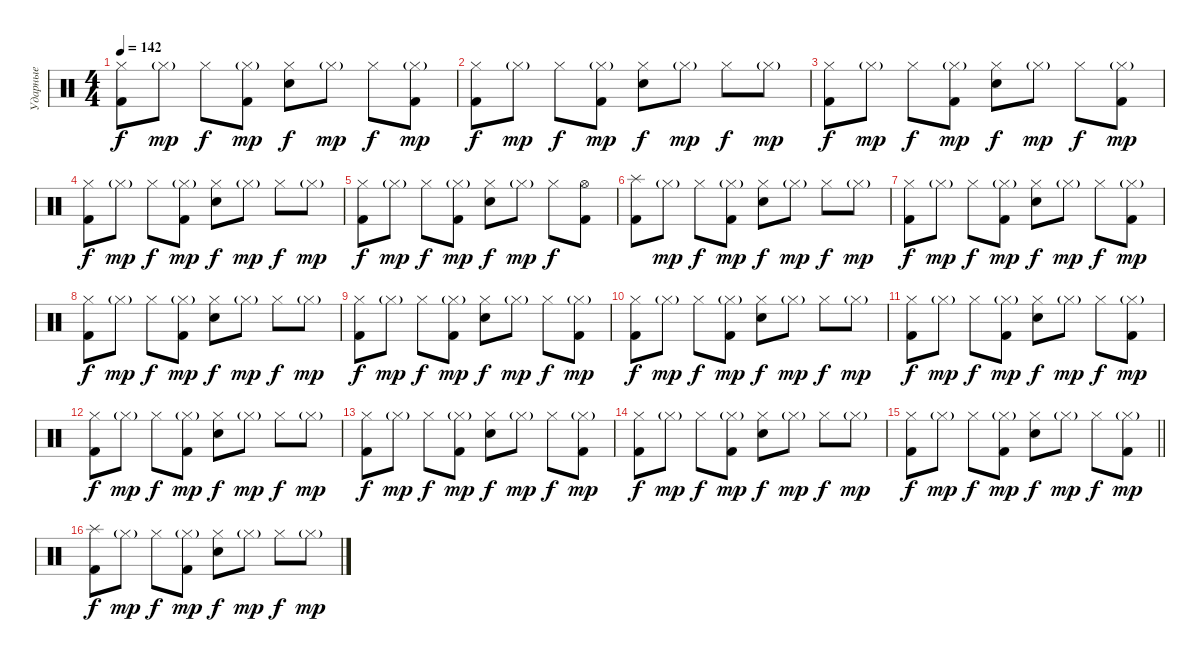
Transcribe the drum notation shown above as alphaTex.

\track ("Ударные" "Ударные") {instrument percussion}
\staff {score}
\articulation defaults
\ts (4 4)
\tempo 142
\clef neutral
\ks c
("Hi-Hat (closed)" "Kick (hit) 2").8{dy f} "Hi-Hat (closed)"{g}.8{dy mp} "Hi-Hat (closed)".8{dy f} ("Hi-Hat (closed)"{g} "Kick (hit) 2").8{dy mp} ("Hi-Hat (closed)" "Snare (hit) 2").8{dy f} "Hi-Hat (closed)"{g}.8{dy mp} "Hi-Hat (closed)".8{dy f} ("Hi-Hat (closed)"{g} "Kick (hit) 2").8{dy mp} |
("Hi-Hat (closed)" "Kick (hit) 2").8{dy f} "Hi-Hat (closed)"{g}.8{dy mp} "Hi-Hat (closed)".8{dy f} ("Hi-Hat (closed)"{g} "Kick (hit) 2").8{dy mp} ("Hi-Hat (closed)" "Snare (hit) 2").8{dy f} "Hi-Hat (closed)"{g}.8{dy mp} "Hi-Hat (closed)".8{dy f} "Hi-Hat (closed)"{g}.8{dy mp} |
("Hi-Hat (closed)" "Kick (hit) 2").8{dy f} "Hi-Hat (closed)"{g}.8{dy mp} "Hi-Hat (closed)".8{dy f} ("Hi-Hat (closed)"{g} "Kick (hit) 2").8{dy mp} ("Hi-Hat (closed)" "Snare (hit) 2").8{dy f} "Hi-Hat (closed)"{g}.8{dy mp} "Hi-Hat (closed)".8{dy f} ("Hi-Hat (closed)"{g} "Kick (hit) 2").8{dy mp} |
("Hi-Hat (closed)" "Kick (hit) 2").8{dy f} "Hi-Hat (closed)"{g}.8{dy mp} "Hi-Hat (closed)".8{dy f} ("Hi-Hat (closed)"{g} "Kick (hit) 2").8{dy mp} ("Hi-Hat (closed)" "Snare (hit) 2").8{dy f} "Hi-Hat (closed)"{g}.8{dy mp} "Hi-Hat (closed)".8{dy f} "Hi-Hat (closed)"{g}.8{dy mp} |
("Hi-Hat (closed)" "Kick (hit) 2").8{dy f} "Hi-Hat (closed)"{g}.8{dy mp} "Hi-Hat (closed)".8{dy f} ("Hi-Hat (closed)"{g} "Kick (hit) 2").8{dy mp} ("Hi-Hat (closed)" "Snare (hit) 2").8{dy f} "Hi-Hat (closed)"{g}.8{dy mp} "Hi-Hat (closed)".8{dy f} ("Hi-Hat (open)" "Kick (hit) 2").8 |
("Splash (hit)" "Kick (hit) 2").8 "Hi-Hat (closed)"{g}.8{dy mp} "Hi-Hat (closed)".8{dy f} ("Hi-Hat (closed)"{g} "Kick (hit) 2").8{dy mp} ("Hi-Hat (closed)" "Snare (hit) 2").8{dy f} "Hi-Hat (closed)"{g}.8{dy mp} "Hi-Hat (closed)".8{dy f} "Hi-Hat (closed)"{g}.8{dy mp} |
("Hi-Hat (closed)" "Kick (hit) 2").8{dy f} "Hi-Hat (closed)"{g}.8{dy mp} "Hi-Hat (closed)".8{dy f} ("Hi-Hat (closed)"{g} "Kick (hit) 2").8{dy mp} ("Hi-Hat (closed)" "Snare (hit) 2").8{dy f} "Hi-Hat (closed)"{g}.8{dy mp} "Hi-Hat (closed)".8{dy f} ("Hi-Hat (closed)"{g} "Kick (hit) 2").8{dy mp} |
("Hi-Hat (closed)" "Kick (hit) 2").8{dy f} "Hi-Hat (closed)"{g}.8{dy mp} "Hi-Hat (closed)".8{dy f} ("Hi-Hat (closed)"{g} "Kick (hit) 2").8{dy mp} ("Hi-Hat (closed)" "Snare (hit) 2").8{dy f} "Hi-Hat (closed)"{g}.8{dy mp} "Hi-Hat (closed)".8{dy f} "Hi-Hat (closed)"{g}.8{dy mp} |
("Hi-Hat (closed)" "Kick (hit) 2").8{dy f} "Hi-Hat (closed)"{g}.8{dy mp} "Hi-Hat (closed)".8{dy f} ("Hi-Hat (closed)"{g} "Kick (hit) 2").8{dy mp} ("Hi-Hat (closed)" "Snare (hit) 2").8{dy f} "Hi-Hat (closed)"{g}.8{dy mp} "Hi-Hat (closed)".8{dy f} ("Hi-Hat (closed)"{g} "Kick (hit) 2").8{dy mp} |
("Hi-Hat (closed)" "Kick (hit) 2").8{dy f} "Hi-Hat (closed)"{g}.8{dy mp} "Hi-Hat (closed)".8{dy f} ("Hi-Hat (closed)"{g} "Kick (hit) 2").8{dy mp} ("Hi-Hat (closed)" "Snare (hit) 2").8{dy f} "Hi-Hat (closed)"{g}.8{dy mp} "Hi-Hat (closed)".8{dy f} "Hi-Hat (closed)"{g}.8{dy mp} |
("Hi-Hat (closed)" "Kick (hit) 2").8{dy f} "Hi-Hat (closed)"{g}.8{dy mp} "Hi-Hat (closed)".8{dy f} ("Hi-Hat (closed)"{g} "Kick (hit) 2").8{dy mp} ("Hi-Hat (closed)" "Snare (hit) 2").8{dy f} "Hi-Hat (closed)"{g}.8{dy mp} "Hi-Hat (closed)".8{dy f} ("Hi-Hat (closed)"{g} "Kick (hit) 2").8{dy mp} |
("Hi-Hat (closed)" "Kick (hit) 2").8{dy f} "Hi-Hat (closed)"{g}.8{dy mp} "Hi-Hat (closed)".8{dy f} ("Hi-Hat (closed)"{g} "Kick (hit) 2").8{dy mp} ("Hi-Hat (closed)" "Snare (hit) 2").8{dy f} "Hi-Hat (closed)"{g}.8{dy mp} "Hi-Hat (closed)".8{dy f} "Hi-Hat (closed)"{g}.8{dy mp} |
("Hi-Hat (closed)" "Kick (hit) 2").8{dy f} "Hi-Hat (closed)"{g}.8{dy mp} "Hi-Hat (closed)".8{dy f} ("Hi-Hat (closed)"{g} "Kick (hit) 2").8{dy mp} ("Hi-Hat (closed)" "Snare (hit) 2").8{dy f} "Hi-Hat (closed)"{g}.8{dy mp} "Hi-Hat (closed)".8{dy f} ("Hi-Hat (closed)"{g} "Kick (hit) 2").8{dy mp} |
("Hi-Hat (closed)" "Kick (hit) 2").8{dy f} "Hi-Hat (closed)"{g}.8{dy mp} "Hi-Hat (closed)".8{dy f} ("Hi-Hat (closed)"{g} "Kick (hit) 2").8{dy mp} ("Hi-Hat (closed)" "Snare (hit) 2").8{dy f} "Hi-Hat (closed)"{g}.8{dy mp} "Hi-Hat (closed)".8{dy f} "Hi-Hat (closed)"{g}.8{dy mp} |
\barLineRight lightlight
("Hi-Hat (closed)" "Kick (hit) 2").8{dy f} "Hi-Hat (closed)"{g}.8{dy mp} "Hi-Hat (closed)".8{dy f} ("Hi-Hat (closed)"{g} "Kick (hit) 2").8{dy mp} ("Hi-Hat (closed)" "Snare (hit) 2").8{dy f} "Hi-Hat (closed)"{g}.8{dy mp} "Hi-Hat (closed)".8{dy f} ("Hi-Hat (closed)"{g} "Kick (hit) 2").8{dy mp} |
("Splash (hit)" "Kick (hit) 2").8{dy f} "Hi-Hat (closed)"{g}.8{dy mp} "Hi-Hat (closed)".8{dy f} ("Hi-Hat (closed)"{g} "Kick (hit) 2").8{dy mp} ("Hi-Hat (closed)" "Snare (hit) 2").8{dy f} "Hi-Hat (closed)"{g}.8{dy mp} "Hi-Hat (closed)".8{dy f} "Hi-Hat (closed)"{g}.8{dy mp}
